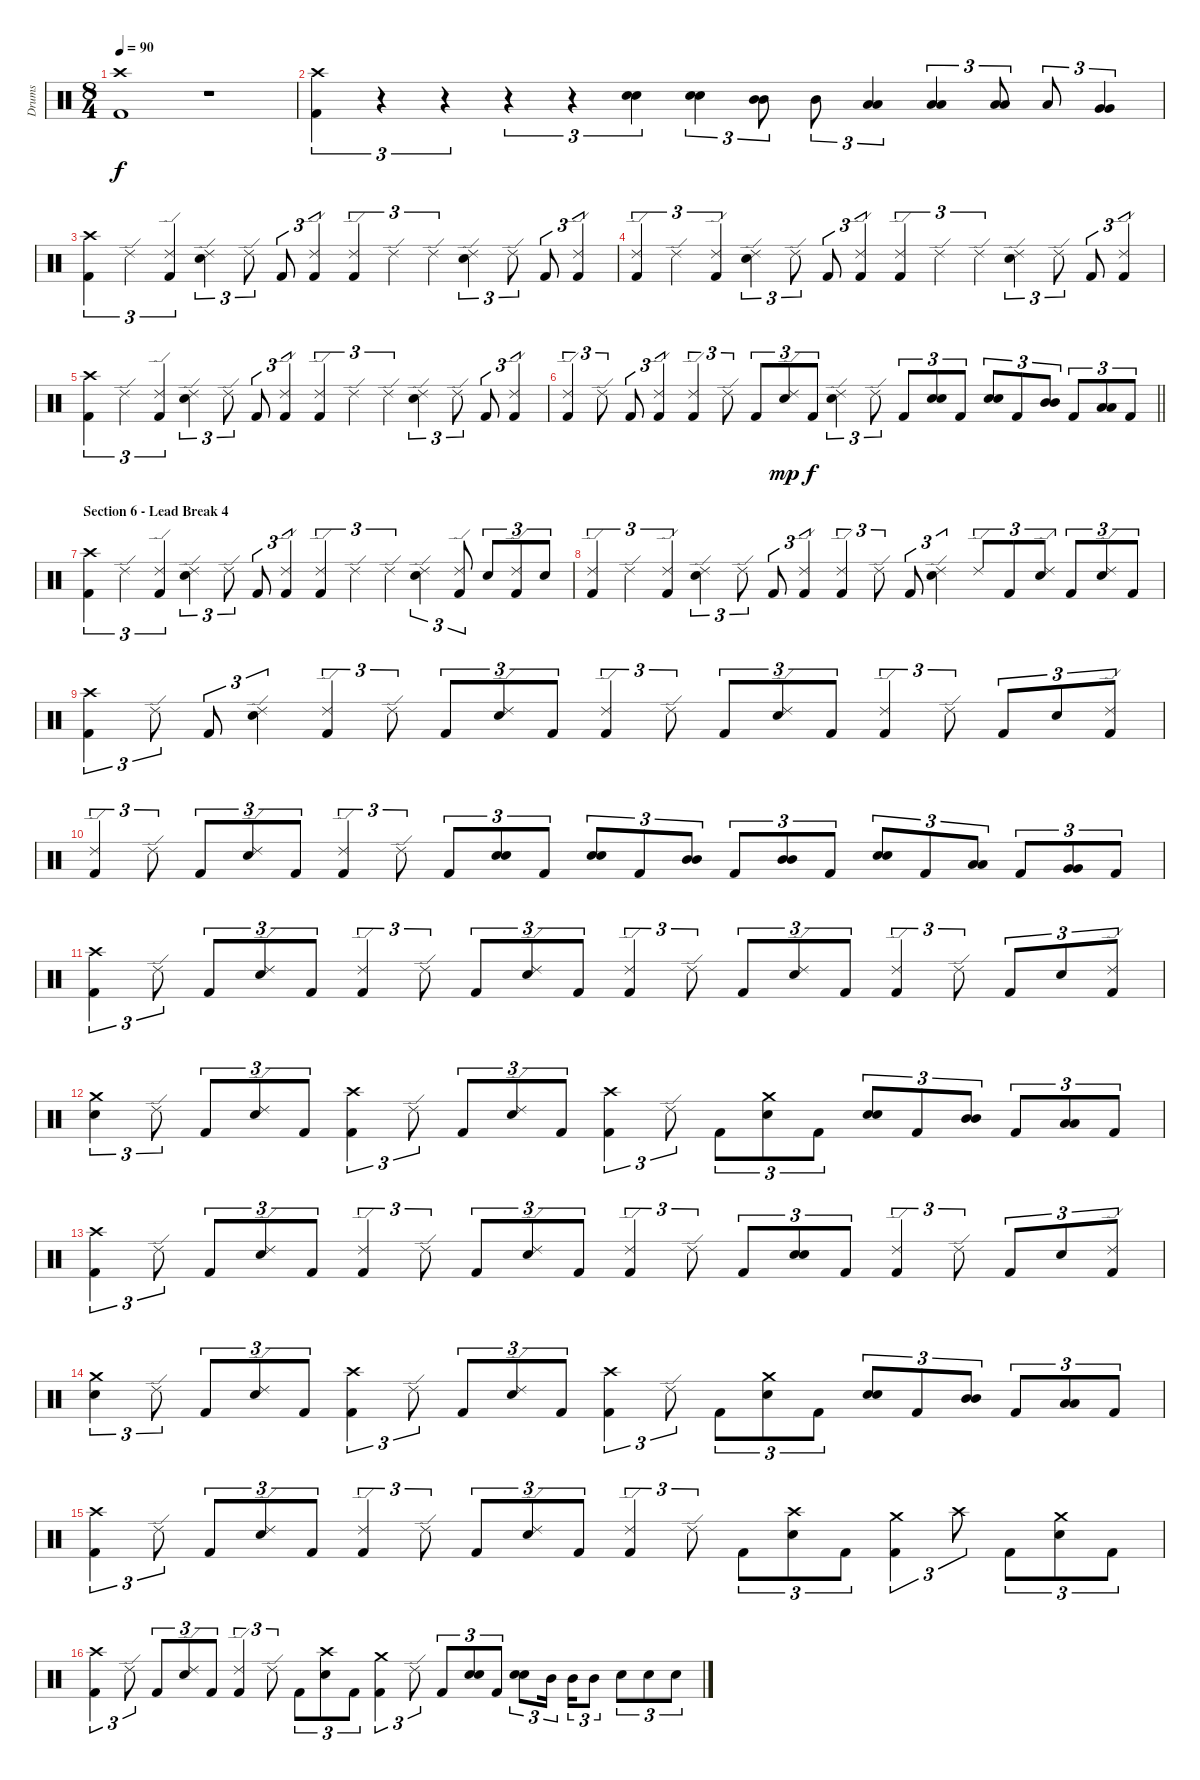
\track ("Drums" "Drums") {instrument percussion}
\staff {score}
\articulation defaults
\ts (8 4)
\tempo 90
\clef neutral
\ks c
("Crash high (hit)" "Kick (hit) 2").1{dy f} r.1 |
("Crash high (hit)" "Kick (hit) 2").4{tu (3 2)} r.4{tu (3 2)} r.4{tu (3 2)} r.4{tu (3 2)} r.4{tu (3 2)} ("Electric Snare (hit)" "Electric Snare (hit)").4{tu (3 2) bu 60} ("Electric Snare (hit)" "Electric Snare (hit)").4{tu (3 2) bu 60} ("Mid Tom (hit)" "Mid Tom (hit)").8{tu (3 2) bu 60} "Mid Tom (hit)".8{tu (3 2)} ("Low Tom (hit)" "Low Tom (hit)").4{tu (3 2) bu 60} ("Low Tom (hit)" "Low Tom (hit)").4{tu (3 2) bu 60} ("Low Tom (hit)" "Low Tom (hit)").8{tu (3 2) bu 60} "Low Tom (hit)".8{tu (3 2)} ("Very Low Tom (hit)" "Very Low Tom (hit)").4{tu (3 2) bu 60} |
("Crash high (hit)" "Kick (hit) 2").4{tu (3 2)} "Ride (edge) 2".4{tu (3 2)} ("Ride (edge) 2" "Kick (hit) 2").4{tu (3 2)} ("Ride (edge) 2" "Electric Snare (hit)").4{tu (3 2)} "Ride (edge) 2".8{tu (3 2)} "Kick (hit) 2".8{tu (3 2)} ("Ride (edge) 2" "Kick (hit) 2").4{tu (3 2)} ("Ride (edge) 2" "Kick (hit) 2").4{tu (3 2)} "Ride (edge) 2".4{tu (3 2)} "Ride (edge) 2".4{tu (3 2)} ("Ride (edge) 2" "Electric Snare (hit)").4{tu (3 2)} "Ride (edge) 2".8{tu (3 2)} "Kick (hit) 2".8{tu (3 2)} ("Ride (edge) 2" "Kick (hit) 2").4{tu (3 2)} |
("Ride (edge) 2" "Kick (hit) 2").4{tu (3 2)} "Ride (edge) 2".4{tu (3 2)} ("Ride (edge) 2" "Kick (hit) 2").4{tu (3 2)} ("Ride (edge) 2" "Electric Snare (hit)").4{tu (3 2)} "Ride (edge) 2".8{tu (3 2)} "Kick (hit) 2".8{tu (3 2)} ("Ride (edge) 2" "Kick (hit) 2").4{tu (3 2)} ("Ride (edge) 2" "Kick (hit) 2").4{tu (3 2)} "Ride (edge) 2".4{tu (3 2)} "Ride (edge) 2".4{tu (3 2)} ("Ride (edge) 2" "Electric Snare (hit)").4{tu (3 2)} "Ride (edge) 2".8{tu (3 2)} "Kick (hit) 2".8{tu (3 2)} ("Ride (edge) 2" "Kick (hit) 2").4{tu (3 2)} |
("Crash high (hit)" "Kick (hit) 2").4{tu (3 2)} "Ride (edge) 2".4{tu (3 2)} ("Ride (edge) 2" "Kick (hit) 2").4{tu (3 2)} ("Ride (edge) 2" "Electric Snare (hit)").4{tu (3 2)} "Ride (edge) 2".8{tu (3 2)} "Kick (hit) 2".8{tu (3 2)} ("Ride (edge) 2" "Kick (hit) 2").4{tu (3 2)} ("Ride (edge) 2" "Kick (hit) 2").4{tu (3 2)} "Ride (edge) 2".4{tu (3 2)} "Ride (edge) 2".4{tu (3 2)} ("Ride (edge) 2" "Electric Snare (hit)").4{tu (3 2)} "Ride (edge) 2".8{tu (3 2)} "Kick (hit) 2".8{tu (3 2)} ("Ride (edge) 2" "Kick (hit) 2").4{tu (3 2)} |
\barLineRight lightlight
("Ride (edge) 2" "Kick (hit) 2").4{tu (3 2)} "Ride (edge) 2".8{tu (3 2)} "Kick (hit) 2".8{tu (3 2)} ("Ride (edge) 2" "Kick (hit) 2").4{tu (3 2)} ("Ride (edge) 2" "Kick (hit) 2").4{tu (3 2)} "Ride (edge) 2".8{tu (3 2)} "Kick (hit) 2".8{tu (3 2)} ("Ride (edge) 2" "Electric Snare (hit)").8{tu (3 2) dy mp} "Kick (hit) 2".8{tu (3 2) dy f} ("Ride (edge) 2" "Electric Snare (hit)").4{tu (3 2)} "Ride (edge) 2".8{tu (3 2)} "Kick (hit) 2".8{tu (3 2)} ("Electric Snare (hit)" "Electric Snare (hit)").8{tu (3 2) bu 60} "Kick (hit) 2".8{tu (3 2)} ("Electric Snare (hit)" "Electric Snare (hit)").8{tu (3 2) bu 60} "Kick (hit) 2".8{tu (3 2)} ("Mid Tom (hit)" "Mid Tom (hit)").8{tu (3 2) bu 60} "Kick (hit) 2".8{tu (3 2)} ("Low Tom (hit)" "Low Tom (hit)").8{tu (3 2) bu 60} "Kick (hit) 2".8{tu (3 2)} |
\section ("" "Section 6 - Lead Break 4")
("Crash high (hit)" "Kick (hit) 2").4{tu (3 2)} "Ride (edge) 2".4{tu (3 2)} ("Ride (edge) 2" "Kick (hit) 2").4{tu (3 2)} ("Ride (edge) 2" "Electric Snare (hit)").4{tu (3 2)} "Ride (edge) 2".8{tu (3 2)} "Kick (hit) 2".8{tu (3 2)} ("Ride (edge) 2" "Kick (hit) 2").4{tu (3 2)} ("Ride (edge) 2" "Kick (hit) 2").4{tu (3 2)} "Ride (edge) 2".4{tu (3 2)} "Ride (edge) 2".4{tu (3 2)} ("Ride (edge) 2" "Electric Snare (hit)").4{tu (3 2)} ("Ride (edge) 2" "Kick (hit) 2").8{tu (3 2)} "Electric Snare (hit)".8{tu (3 2)} ("Ride (edge) 2" "Kick (hit) 2").8{tu (3 2)} "Electric Snare (hit)".8{tu (3 2)} |
("Ride (edge) 2" "Kick (hit) 2").4{tu (3 2)} "Ride (edge) 2".4{tu (3 2)} ("Ride (edge) 2" "Kick (hit) 2").4{tu (3 2)} ("Ride (edge) 2" "Electric Snare (hit)").4{tu (3 2)} "Ride (edge) 2".8{tu (3 2)} "Kick (hit) 2".8{tu (3 2)} ("Ride (edge) 2" "Kick (hit) 2").4{tu (3 2)} ("Ride (edge) 2" "Kick (hit) 2").4{tu (3 2)} "Ride (edge) 2".8{tu (3 2)} "Kick (hit) 2".8{tu (3 2)} ("Ride (edge) 2" "Electric Snare (hit)").4{tu (3 2)} "Ride (edge) 2".8{tu (3 2)} "Kick (hit) 2".8{tu (3 2)} ("Ride (edge) 2" "Electric Snare (hit)").8{tu (3 2)} "Kick (hit) 2".8{tu (3 2)} ("Ride (edge) 2" "Electric Snare (hit)").8{tu (3 2)} "Kick (hit) 2".8{tu (3 2)} |
("Crash high (hit)" "Kick (hit) 2").4{tu (3 2)} "Ride (edge) 2".8{tu (3 2)} "Kick (hit) 2".8{tu (3 2)} ("Ride (edge) 2" "Electric Snare (hit)").4{tu (3 2)} ("Ride (edge) 2" "Kick (hit) 2").4{tu (3 2)} "Ride (edge) 2".8{tu (3 2)} "Kick (hit) 2".8{tu (3 2)} ("Ride (edge) 2" "Electric Snare (hit)").8{tu (3 2)} "Kick (hit) 2".8{tu (3 2)} ("Ride (edge) 2" "Kick (hit) 2").4{tu (3 2)} "Ride (edge) 2".8{tu (3 2)} "Kick (hit) 2".8{tu (3 2)} ("Ride (edge) 2" "Electric Snare (hit)").8{tu (3 2)} "Kick (hit) 2".8{tu (3 2)} ("Ride (edge) 2" "Kick (hit) 2").4{tu (3 2)} "Ride (edge) 2".8{tu (3 2)} "Kick (hit) 2".8{tu (3 2)} "Electric Snare (hit)".8{tu (3 2)} ("Ride (edge) 2" "Kick (hit) 2").8{tu (3 2)} |
("Ride (edge) 2" "Kick (hit) 2").4{tu (3 2)} "Ride (edge) 2".8{tu (3 2)} "Kick (hit) 2".8{tu (3 2)} ("Ride (edge) 2" "Electric Snare (hit)").8{tu (3 2)} "Kick (hit) 2".8{tu (3 2)} ("Ride (edge) 2" "Kick (hit) 2").4{tu (3 2)} "Ride (edge) 2".8{tu (3 2)} "Kick (hit) 2".8{tu (3 2)} ("Electric Snare (hit)" "Electric Snare (hit)").8{tu (3 2) bu 60} "Kick (hit) 2".8{tu (3 2)} ("Electric Snare (hit)" "Electric Snare (hit)").8{tu (3 2) bu 60} "Kick (hit) 2".8{tu (3 2)} ("Mid Tom (hit)" "Mid Tom (hit)").8{tu (3 2) bu 60} "Kick (hit) 2".8{tu (3 2)} ("Mid Tom (hit)" "Mid Tom (hit)").8{tu (3 2) bu 60} "Kick (hit) 2".8{tu (3 2)} ("Electric Snare (hit)" "Electric Snare (hit)").8{tu (3 2) bu 60} "Kick (hit) 2".8{tu (3 2)} ("Low Tom (hit)" "Low Tom (hit)").8{tu (3 2) bu 60} "Kick (hit) 2".8{tu (3 2)} ("Very Low Tom (hit)" "Very Low Tom (hit)").8{tu (3 2) bu 60} "Kick (hit) 2".8{tu (3 2)} |
("Crash high (hit)" "Kick (hit) 2").4{tu (3 2)} "Ride (edge) 2".8{tu (3 2)} "Kick (hit) 2".8{tu (3 2)} ("Ride (edge) 2" "Electric Snare (hit)").8{tu (3 2)} "Kick (hit) 2".8{tu (3 2)} ("Ride (edge) 2" "Kick (hit) 2").4{tu (3 2)} "Ride (edge) 2".8{tu (3 2)} "Kick (hit) 2".8{tu (3 2)} ("Ride (edge) 2" "Electric Snare (hit)").8{tu (3 2)} "Kick (hit) 2".8{tu (3 2)} ("Ride (edge) 2" "Kick (hit) 2").4{tu (3 2)} "Ride (edge) 2".8{tu (3 2)} "Kick (hit) 2".8{tu (3 2)} ("Ride (edge) 2" "Electric Snare (hit)").8{tu (3 2)} "Kick (hit) 2".8{tu (3 2)} ("Ride (edge) 2" "Kick (hit) 2").4{tu (3 2)} "Ride (edge) 2".8{tu (3 2)} "Kick (hit) 2".8{tu (3 2)} "Electric Snare (hit)".8{tu (3 2)} ("Ride (edge) 2" "Kick (hit) 2").8{tu (3 2)} |
("Crash medium (hit)" "Electric Snare (hit)").4{tu (3 2)} "Ride (edge) 2".8{tu (3 2)} "Kick (hit) 2".8{tu (3 2)} ("Ride (edge) 2" "Electric Snare (hit)").8{tu (3 2)} "Kick (hit) 2".8{tu (3 2)} ("Crash high (hit)" "Kick (hit) 2").4{tu (3 2)} "Ride (edge) 2".8{tu (3 2)} "Kick (hit) 2".8{tu (3 2)} ("Ride (edge) 2" "Electric Snare (hit)").8{tu (3 2)} "Kick (hit) 2".8{tu (3 2)} ("Crash high (hit)" "Kick (hit) 2").4{tu (3 2)} "Ride (edge) 2".8{tu (3 2)} "Kick (hit) 2".8{tu (3 2)} ("Crash medium (hit)" "Electric Snare (hit)").8{tu (3 2)} "Kick (hit) 2".8{tu (3 2)} ("Electric Snare (hit)" "Electric Snare (hit)").8{tu (3 2) bu 60} "Kick (hit) 2".8{tu (3 2)} ("Mid Tom (hit)" "Mid Tom (hit)").8{tu (3 2) bu 60} "Kick (hit) 2".8{tu (3 2)} ("Low Tom (hit)" "Low Tom (hit)").8{tu (3 2) bu 60} "Kick (hit) 2".8{tu (3 2)} |
("Crash high (hit)" "Kick (hit) 2").4{tu (3 2)} "Ride (edge) 2".8{tu (3 2)} "Kick (hit) 2".8{tu (3 2)} ("Ride (edge) 2" "Electric Snare (hit)").8{tu (3 2)} "Kick (hit) 2".8{tu (3 2)} ("Ride (edge) 2" "Kick (hit) 2").4{tu (3 2)} "Ride (edge) 2".8{tu (3 2)} "Kick (hit) 2".8{tu (3 2)} ("Ride (edge) 2" "Electric Snare (hit)").8{tu (3 2)} "Kick (hit) 2".8{tu (3 2)} ("Ride (edge) 2" "Kick (hit) 2").4{tu (3 2)} "Ride (edge) 2".8{tu (3 2)} "Kick (hit) 2".8{tu (3 2)} ("Electric Snare (hit)" "Electric Snare (hit)").8{tu (3 2) bu 60} "Kick (hit) 2".8{tu (3 2)} ("Ride (edge) 2" "Kick (hit) 2").4{tu (3 2)} "Ride (edge) 2".8{tu (3 2)} "Kick (hit) 2".8{tu (3 2)} "Electric Snare (hit)".8{tu (3 2)} ("Ride (edge) 2" "Kick (hit) 2").8{tu (3 2)} |
("Crash medium (hit)" "Electric Snare (hit)").4{tu (3 2)} "Ride (edge) 2".8{tu (3 2)} "Kick (hit) 2".8{tu (3 2)} ("Ride (edge) 2" "Electric Snare (hit)").8{tu (3 2)} "Kick (hit) 2".8{tu (3 2)} ("Crash high (hit)" "Kick (hit) 2").4{tu (3 2)} "Ride (edge) 2".8{tu (3 2)} "Kick (hit) 2".8{tu (3 2)} ("Ride (edge) 2" "Electric Snare (hit)").8{tu (3 2)} "Kick (hit) 2".8{tu (3 2)} ("Crash high (hit)" "Kick (hit) 2").4{tu (3 2)} "Ride (edge) 2".8{tu (3 2)} "Kick (hit) 2".8{tu (3 2)} ("Crash medium (hit)" "Electric Snare (hit)").8{tu (3 2)} "Kick (hit) 2".8{tu (3 2)} ("Electric Snare (hit)" "Electric Snare (hit)").8{tu (3 2) bu 60} "Kick (hit) 2".8{tu (3 2)} ("Mid Tom (hit)" "Mid Tom (hit)").8{tu (3 2) bu 60} "Kick (hit) 2".8{tu (3 2)} ("Low Tom (hit)" "Low Tom (hit)").8{tu (3 2) bu 60} "Kick (hit) 2".8{tu (3 2)} |
("Crash high (hit)" "Kick (hit) 2").4{tu (3 2)} "Ride (edge) 2".8{tu (3 2)} "Kick (hit) 2".8{tu (3 2)} ("Ride (edge) 2" "Electric Snare (hit)").8{tu (3 2)} "Kick (hit) 2".8{tu (3 2)} ("Ride (edge) 2" "Kick (hit) 2").4{tu (3 2)} "Ride (edge) 2".8{tu (3 2)} "Kick (hit) 2".8{tu (3 2)} ("Ride (edge) 2" "Electric Snare (hit)").8{tu (3 2)} "Kick (hit) 2".8{tu (3 2)} ("Ride (edge) 2" "Kick (hit) 2").4{tu (3 2)} "Ride (edge) 2".8{tu (3 2)} "Kick (hit) 2".8{tu (3 2)} ("Crash high (hit)" "Electric Snare (hit)").8{tu (3 2)} "Kick (hit) 2".8{tu (3 2)} ("Crash medium (hit)" "Kick (hit) 2").4{tu (3 2)} "Crash high (hit)".8{tu (3 2)} "Kick (hit) 2".8{tu (3 2)} ("Crash medium (hit)" "Electric Snare (hit)").8{tu (3 2)} "Kick (hit) 2".8{tu (3 2)} |
("Crash high (hit)" "Kick (hit) 2").4{tu (3 2)} "Ride (edge) 2".8{tu (3 2)} "Kick (hit) 2".8{tu (3 2)} ("Ride (edge) 2" "Electric Snare (hit)").8{tu (3 2)} "Kick (hit) 2".8{tu (3 2)} ("Ride (edge) 2" "Kick (hit) 2").4{tu (3 2)} "Ride (edge) 2".8{tu (3 2)} "Kick (hit) 2".8{tu (3 2)} ("Crash high (hit)" "Electric Snare (hit)").8{tu (3 2)} "Kick (hit) 2".8{tu (3 2)} ("Crash medium (hit)" "Kick (hit) 2").4{tu (3 2)} "Ride (edge) 2".8{tu (3 2)} "Kick (hit) 2".8{tu (3 2)} ("Electric Snare (hit)" "Electric Snare (hit)").8{tu (3 2) bu 60} "Kick (hit) 2".8{tu (3 2)} ("Electric Snare (hit)" "Electric Snare (hit)").8{tu (3 2) bu 60} "Mid Tom (hit)".16{tu (3 2) beam splitsecondary} "Mid Tom (hit)".16{tu (3 2)} "Mid Tom (hit)".8{tu (3 2)} "Electric Snare (hit)".8{tu (3 2)} "Electric Snare (hit)".8{tu (3 2)} "Electric Snare (hit)".8{tu (3 2)}
